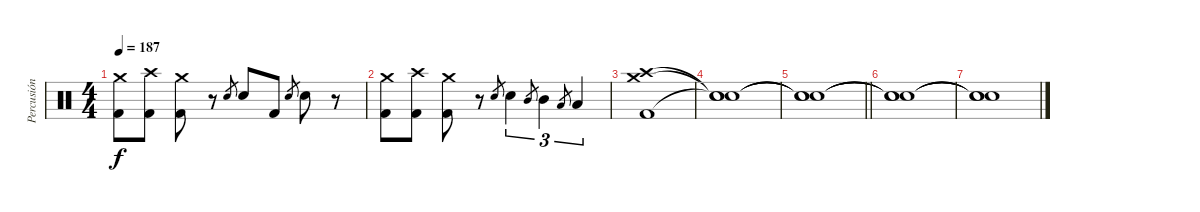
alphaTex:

\track ("Percusión" "Percusión") {instrument percussion}
\staff {score}
\articulation defaults
\ts (4 4)
\tempo 187
\clef neutral
\ks c
("Crash medium (hit)" "Kick (hit) 2").8{dy f} ("Crash high (hit)" "Kick (hit) 2").8 ("Crash medium (hit)" "Kick (hit) 2").8 r.8 "Snare (hit) 2".8{gr} "Snare (hit) 2".8 "Kick (hit) 2".8 "Snare (hit) 2".8{gr} "Snare (hit) 2".8 r.8 |
("Crash medium (hit)" "Kick (hit) 2").8 ("Crash high (hit)" "Kick (hit) 2").8 ("Crash medium (hit)" "Kick (hit) 2").8 r.8 "Snare (hit) 2".8{gr} "Snare (hit) 2".4{tu (3 2)} "Mid Tom (hit)".8{gr} "Mid Tom (hit)".4{tu (3 2)} "Low Tom (hit)".8{gr} "Low Tom (hit)".4{tu (3 2)} |
("Crash high (hit)" "Crash medium (hit)" "Kick (hit) 2").1{volume 0} |
("Snare (hit)"{t} "Snare (hit)"{t} "Snare (hit)"{t}).1 |
\barLineRight lightlight
("Snare (hit)"{t} "Snare (hit)"{t} "Snare (hit)"{t}).1 |
("Snare (hit)"{t} "Snare (hit)"{t} "Snare (hit)"{t}).1 |
("Snare (hit)"{t} "Snare (hit)"{t} "Snare (hit)"{t}).1
